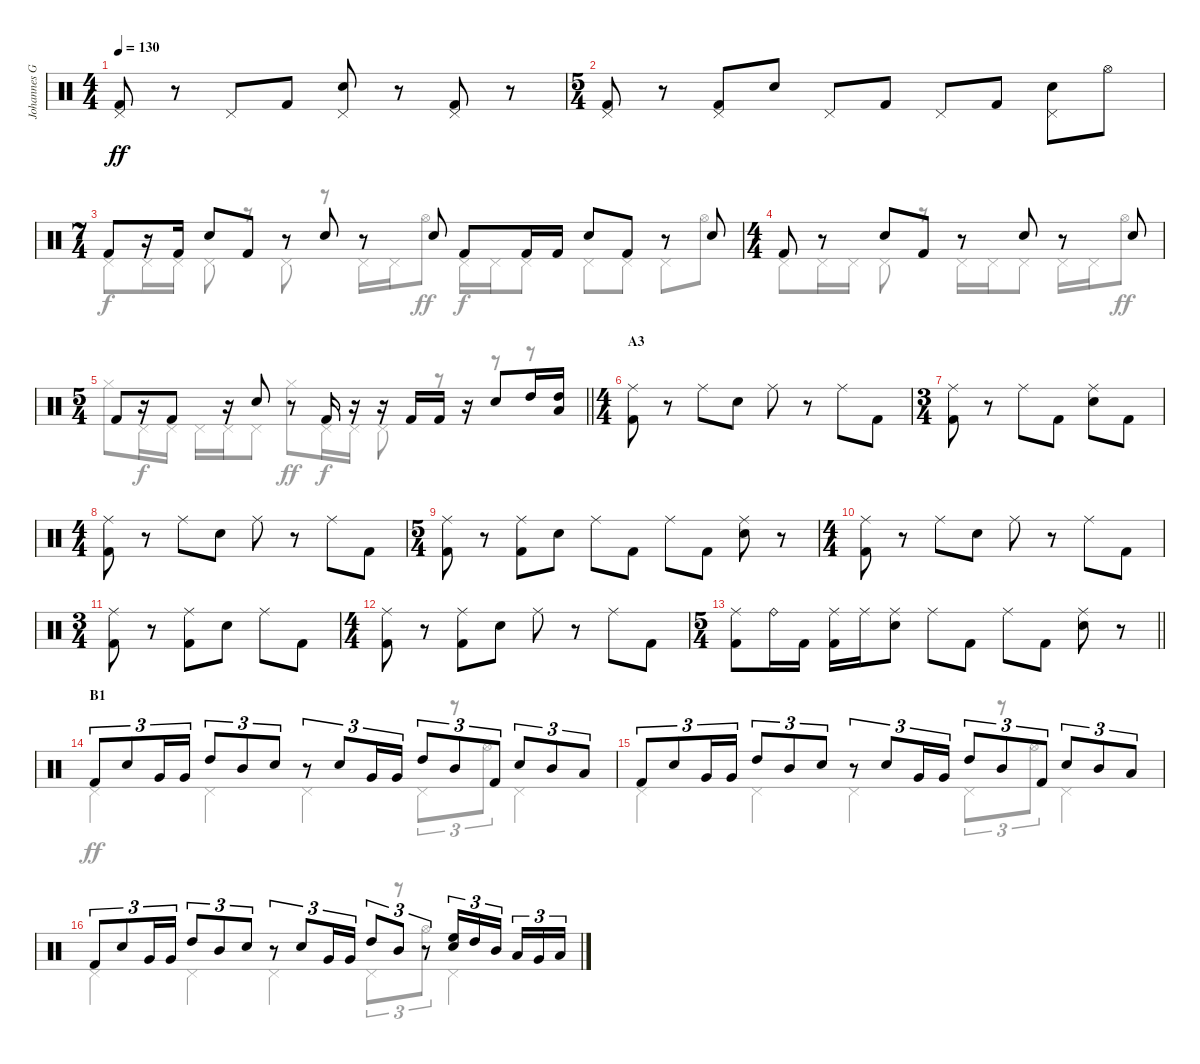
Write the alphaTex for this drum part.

\track ("Johannes Grossmann" "Johannes G") {instrument percussion}
\staff {score}
\articulation defaults
\voice
\ts (4 4)
\tempo 130
\clef neutral
\ks c
("Pedal Hi-Hat (hit)" "Kick (hit) 2").8{dy ff} r.8 "Pedal Hi-Hat (hit)".8 "Kick (hit) 2".8 ("Pedal Hi-Hat (hit)" "Snare (hit) 2").8 r.8 ("Pedal Hi-Hat (hit)" "Kick (hit) 2").8 r.8 |
\ts (5 4)
("Pedal Hi-Hat (hit)" "Kick (hit) 2").8 r.8 ("Pedal Hi-Hat (hit)" "Kick (hit) 2").8 "Snare (hit) 2".8 "Pedal Hi-Hat (hit)".8 "Kick (hit) 2".8 "Pedal Hi-Hat (hit)".8 "Kick (hit) 2".8 ("Pedal Hi-Hat (hit)" "Snare (hit) 2").8 "Hi-Hat (open)".8 |
\ts (7 4)
"Kick (hit) 2".8 r.16 "Kick (hit) 2".16 "Snare (hit) 2".8 "Kick (hit) 2".8 r.8 "Snare (hit) 2".8 r.8 "Snare (hit) 2".8 "Kick (hit) 2".8 "Kick (hit) 2".16 "Kick (hit) 2".16 "Snare (hit) 2".8 "Kick (hit) 2".8 r.8 "Snare (hit) 2".8 |
\ts (4 4)
"Kick (hit) 2".8 r.8 "Snare (hit) 2".8 "Kick (hit) 2".8 r.8 "Snare (hit) 2".8 r.8 "Snare (hit) 2".8 |
\ts (5 4)
\barLineRight lightlight "Kick (hit) 2".8
r.16 "Kick (hit) 2".8 r.16 "Snare (hit) 2".8 r.8 "Kick (hit) 2".16 r.16 r.16 "Kick (hit) 2".16 "Kick (hit) 2".16 r.16 "Snare (hit) 2".8 "High Tom (hit)".16 ("High Tom (hit)" "Low Tom (hit)").16 |
\ts (4 4)
\section ("" "A3")
("Ride (middle)" "Kick (hit) 2").8 r.8 "Ride (middle)".8 "Snare (hit) 2".8 "Ride (middle)".8 r.8 "Ride (middle)".8 "Kick (hit) 2".8 |
\ts (3 4)
("Ride (middle)" "Kick (hit) 2").8 r.8 "Ride (middle)".8 "Kick (hit) 2".8 ("Ride (middle)" "Snare (hit) 2").8 "Kick (hit) 2".8 |
\ts (4 4)
("Ride (middle)" "Kick (hit) 2").8 r.8 "Ride (middle)".8 "Snare (hit) 2".8 "Ride (middle)".8 r.8 "Ride (middle)".8 "Kick (hit) 2".8 |
\ts (5 4)
("Ride (middle)" "Kick (hit) 2").8 r.8 ("Ride (middle)" "Kick (hit) 2").8 "Snare (hit) 2".8 "Ride (middle)".8 "Kick (hit) 2".8 "Ride (middle)".8 "Kick (hit) 2".8 ("Ride (middle)" "Snare (hit) 2").8 r.8 |
\ts (4 4)
("Ride (middle)" "Kick (hit) 2").8 r.8 "Ride (middle)".8 "Snare (hit) 2".8 "Ride (middle)".8 r.8 "Ride (middle)".8 "Kick (hit) 2".8 |
\ts (3 4)
("Ride (middle)" "Kick (hit) 2").8 r.8 ("Ride (middle)" "Kick (hit) 2").8 "Snare (hit) 2".8 "Ride (middle)".8 "Kick (hit) 2".8 |
\ts (4 4)
("Ride (middle)" "Kick (hit) 2").8 r.8 ("Ride (middle)" "Kick (hit) 2").8 "Snare (hit) 2".8 "Ride (middle)".8 r.8 "Ride (middle)".8 "Kick (hit) 2".8 |
\ts (5 4)
\barLineRight lightlight
("Ride (middle)" "Kick (hit) 2").8 "Ride (bell)".16 "Kick (hit) 2".16 ("Ride (middle)" "Kick (hit) 2").16 "Ride (middle)".16 ("Ride (middle)" "Snare (hit) 2").8 "Ride (middle)".8 "Kick (hit) 2".8 "Ride (middle)".8 "Kick (hit) 2".8 ("Ride (middle)" "Snare (hit) 2").8 r.8 |
\section ("" "B1")
"Kick (hit) 2".8{tu (3 2)} "Snare (hit) 2".8{tu (3 2)} "Very Low Tom (hit)".16{tu (3 2)} "Very Low Tom (hit)".16{tu (3 2)} "High Tom (hit)".8{tu (3 2)} "Mid Tom (hit)".8{tu (3 2)} "Snare (hit) 2".8{tu (3 2)} r.8{tu (3 2)} "Electric Snare (hit)".8{tu (3 2)} "Very Low Tom (hit)".16{tu (3 2)} "Very Low Tom (hit)".16{tu (3 2)} "High Tom (hit)".8{tu (3 2)} "Mid Tom (hit)".8{tu (3 2)} "Kick (hit) 2".8{tu (3 2)} "Snare (hit) 2".8{tu (3 2)} "Mid Tom (hit)".8{tu (3 2)} "Low Tom (hit)".8{tu (3 2)} |
"Kick (hit) 2".8{tu (3 2)} "Snare (hit) 2".8{tu (3 2)} "Very Low Tom (hit)".16{tu (3 2)} "Very Low Tom (hit)".16{tu (3 2)} "High Tom (hit)".8{tu (3 2)} "Mid Tom (hit)".8{tu (3 2)} "Snare (hit) 2".8{tu (3 2)} r.8{tu (3 2)} "Electric Snare (hit)".8{tu (3 2)} "Very Low Tom (hit)".16{tu (3 2)} "Very Low Tom (hit)".16{tu (3 2)} "High Tom (hit)".8{tu (3 2)} "Mid Tom (hit)".8{tu (3 2)} "Kick (hit) 2".8{tu (3 2)} "Snare (hit) 2".8{tu (3 2)} "Mid Tom (hit)".8{tu (3 2)} "Low Tom (hit)".8{tu (3 2)} |
"Kick (hit) 2".8{tu (3 2)} "Snare (hit) 2".8{tu (3 2)} "Very Low Tom (hit)".16{tu (3 2)} "Very Low Tom (hit)".16{tu (3 2)} "High Tom (hit)".8{tu (3 2)} "Mid Tom (hit)".8{tu (3 2)} "Snare (hit) 2".8{tu (3 2)} r.8{tu (3 2)} "Electric Snare (hit)".8{tu (3 2)} "Very Low Tom (hit)".16{tu (3 2)} "Very Low Tom (hit)".16{tu (3 2)} "High Tom (hit)".8{tu (3 2)} "Mid Tom (hit)".8{tu (3 2)} r.8{tu (3 2)} ("High Floor Tom (hit)" "Electric Snare (hit)").16{tu (3 2)} "High Tom (hit)".16{tu (3 2)} "Mid Tom (hit)".16{tu (3 2) beam splitsecondary} "Low Tom (hit)".16{tu (3 2)} "Very Low Tom (hit)".16{tu (3 2)} "Low Floor Tom (hit)".16{tu (3 2)}
\voice
\clef neutral
\ottava regular
\simile none
\ks c
|
|
"Pedal Hi-Hat (hit)".8{dy f} "Pedal Hi-Hat (hit)".16 "Pedal Hi-Hat (hit)".16 "Pedal Hi-Hat (hit)".8 r.8 "Pedal Hi-Hat (hit)".8 r.8 "Pedal Hi-Hat (hit)".16 "Pedal Hi-Hat (hit)".16 "Hi-Hat (open)".8{dy ff} "Pedal Hi-Hat (hit)".16{dy f} "Pedal Hi-Hat (hit)".16 "Pedal Hi-Hat (hit)".8 "Pedal Hi-Hat (hit)".8 "Pedal Hi-Hat (hit)".8 "Pedal Hi-Hat (hit)".8 "Hi-Hat (open)".8 |
"Pedal Hi-Hat (hit)".8 "Pedal Hi-Hat (hit)".16 "Pedal Hi-Hat (hit)".16 "Pedal Hi-Hat (hit)".8 r.8 "Pedal Hi-Hat (hit)".16 "Pedal Hi-Hat (hit)".16 "Pedal Hi-Hat (hit)".8 "Pedal Hi-Hat (hit)".16 "Pedal Hi-Hat (hit)".16 "Hi-Hat (open)".8{dy ff} |
\barLineRight lightlight "Hi-Hat (closed)".8 "Pedal Hi-Hat (hit)".16{dy f} "Pedal Hi-Hat (hit)".16 "Pedal Hi-Hat (hit)".16 "Pedal Hi-Hat (hit)".16 "Pedal Hi-Hat (hit)".8 "Hi-Hat (closed)".8{dy ff} "Pedal Hi-Hat (hit)".16{dy f} "Pedal Hi-Hat (hit)".16 "Pedal Hi-Hat (hit)".8
r.8 r.8 r.8 |
|
|
|
|
|
|
|
\barLineRight lightlight
|
"Pedal Hi-Hat (hit)".4{dy ff} "Pedal Hi-Hat (hit)".4 "Pedal Hi-Hat (hit)".4 "Pedal Hi-Hat (hit)".8{tu (3 2)} r.8{tu (3 2)} "Hi-Hat (open)".8{tu (3 2)} "Pedal Hi-Hat (hit)".4 |
"Pedal Hi-Hat (hit)".4 "Pedal Hi-Hat (hit)".4 "Pedal Hi-Hat (hit)".4 "Pedal Hi-Hat (hit)".8{tu (3 2)} r.8{tu (3 2)} "Hi-Hat (open)".8{tu (3 2)} "Pedal Hi-Hat (hit)".4 |
"Pedal Hi-Hat (hit)".4 "Pedal Hi-Hat (hit)".4 "Pedal Hi-Hat (hit)".4 "Pedal Hi-Hat (hit)".8{tu (3 2)} r.8{tu (3 2)} "Hi-Hat (open)".8{tu (3 2)} "Pedal Hi-Hat (hit)".4
